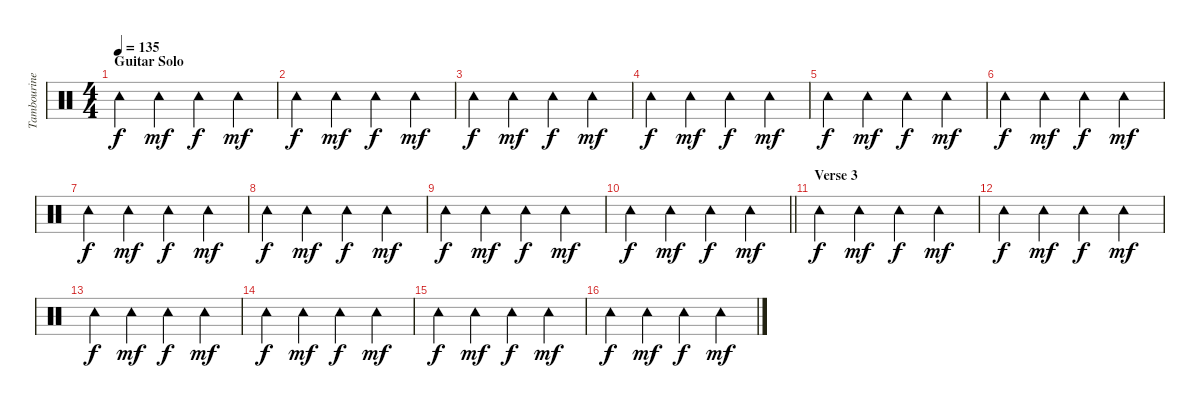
\track ("Tambourine" "Tambourine") {instrument percussion}
\staff {score}
\articulation defaults
\ts (4 4)
\section ("" "Guitar Solo")
\tempo 135
\clef neutral
\ks c "Tambourine (hit)".4{dy f} "Tambourine (hit)".4{dy mf} "Tambourine (hit)".4{dy f} "Tambourine (hit)".4{dy mf}
|
"Tambourine (hit)".4{dy f} "Tambourine (hit)".4{dy mf} "Tambourine (hit)".4{dy f} "Tambourine (hit)".4{dy mf} |
"Tambourine (hit)".4{dy f} "Tambourine (hit)".4{dy mf} "Tambourine (hit)".4{dy f} "Tambourine (hit)".4{dy mf} |
"Tambourine (hit)".4{dy f} "Tambourine (hit)".4{dy mf} "Tambourine (hit)".4{dy f} "Tambourine (hit)".4{dy mf} |
"Tambourine (hit)".4{dy f} "Tambourine (hit)".4{dy mf} "Tambourine (hit)".4{dy f} "Tambourine (hit)".4{dy mf} |
"Tambourine (hit)".4{dy f} "Tambourine (hit)".4{dy mf} "Tambourine (hit)".4{dy f} "Tambourine (hit)".4{dy mf} |
"Tambourine (hit)".4{dy f} "Tambourine (hit)".4{dy mf} "Tambourine (hit)".4{dy f} "Tambourine (hit)".4{dy mf} |
"Tambourine (hit)".4{dy f} "Tambourine (hit)".4{dy mf} "Tambourine (hit)".4{dy f} "Tambourine (hit)".4{dy mf} |
"Tambourine (hit)".4{dy f} "Tambourine (hit)".4{dy mf} "Tambourine (hit)".4{dy f} "Tambourine (hit)".4{dy mf} |
\barLineRight lightlight "Tambourine (hit)".4{dy f} "Tambourine (hit)".4{dy mf} "Tambourine (hit)".4{dy f} "Tambourine (hit)".4{dy mf}
|
\section ("" "Verse 3")
"Tambourine (hit)".4{dy f} "Tambourine (hit)".4{dy mf} "Tambourine (hit)".4{dy f} "Tambourine (hit)".4{dy mf} |
"Tambourine (hit)".4{dy f} "Tambourine (hit)".4{dy mf} "Tambourine (hit)".4{dy f} "Tambourine (hit)".4{dy mf} |
"Tambourine (hit)".4{dy f} "Tambourine (hit)".4{dy mf} "Tambourine (hit)".4{dy f} "Tambourine (hit)".4{dy mf} |
"Tambourine (hit)".4{dy f} "Tambourine (hit)".4{dy mf} "Tambourine (hit)".4{dy f} "Tambourine (hit)".4{dy mf} |
"Tambourine (hit)".4{dy f} "Tambourine (hit)".4{dy mf} "Tambourine (hit)".4{dy f} "Tambourine (hit)".4{dy mf} |
"Tambourine (hit)".4{dy f} "Tambourine (hit)".4{dy mf} "Tambourine (hit)".4{dy f} "Tambourine (hit)".4{dy mf}
